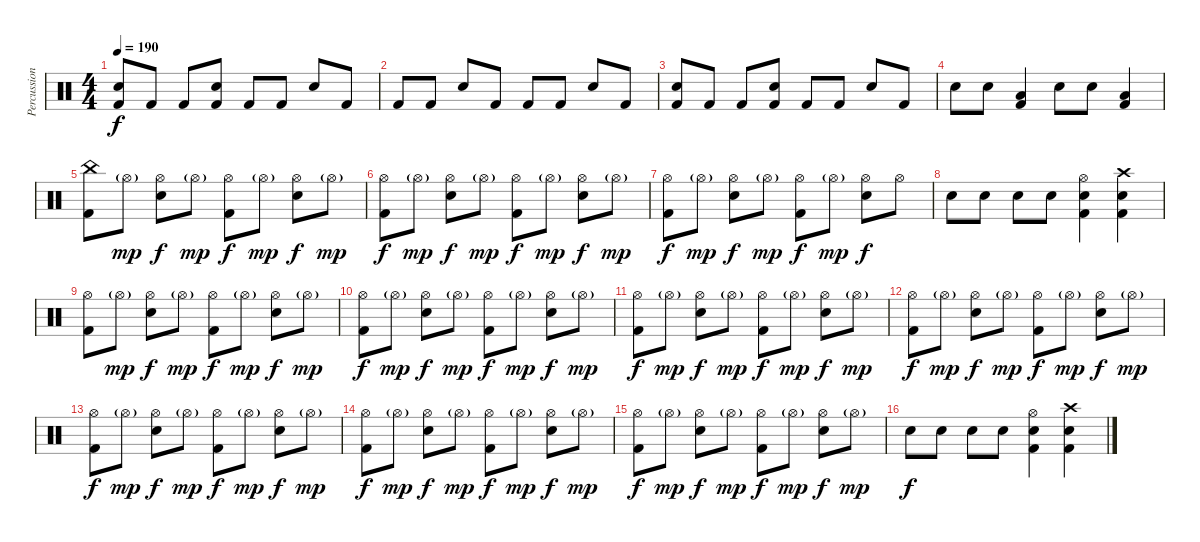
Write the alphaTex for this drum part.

\track ("Percussions" "Percussion") {instrument percussion}
\staff {score}
\articulation defaults
\ts (4 4)
\tempo 190
\clef neutral
\ks c
("Snare (hit) 2" "Kick (hit) 2").8{dy f} "Kick (hit) 2".8 "Kick (hit) 2".8 ("Snare (hit) 2" "Kick (hit) 2").8 "Kick (hit) 2".8 "Kick (hit) 2".8 "Snare (hit) 2".8 "Kick (hit) 2".8 |
"Kick (hit) 2".8 "Kick (hit) 2".8 "Snare (hit) 2".8 "Kick (hit) 2".8 "Kick (hit) 2".8 "Kick (hit) 2".8 "Snare (hit) 2".8 "Kick (hit) 2".8 |
("Snare (hit) 2" "Kick (hit) 2").8 "Kick (hit) 2".8 "Kick (hit) 2".8 ("Snare (hit) 2" "Kick (hit) 2").8 "Kick (hit) 2".8 "Kick (hit) 2".8 "Snare (hit) 2".8 "Kick (hit) 2".8 |
"Snare (hit) 2".8 "Snare (hit) 2".8 ("Low Floor Tom (hit)" "Kick (hit) 2").4 "Snare (hit) 2".8 "Snare (hit) 2".8 ("Low Floor Tom (hit)" "Kick (hit) 2").4 |
("China (hit)" "Kick (hit) 2").8 "Hi-Hat (open)"{g}.8{dy mp} ("Hi-Hat (open)" "Snare (hit) 2").8{dy f} "Hi-Hat (open)"{g}.8{dy mp} ("Hi-Hat (open)" "Kick (hit) 2").8{dy f} "Hi-Hat (open)"{g}.8{dy mp} ("Hi-Hat (open)" "Snare (hit) 2").8{dy f} "Hi-Hat (open)"{g}.8{dy mp} |
("Hi-Hat (open)" "Kick (hit) 2").8{dy f} "Hi-Hat (open)"{g}.8{dy mp} ("Hi-Hat (open)" "Snare (hit) 2").8{dy f} "Hi-Hat (open)"{g}.8{dy mp} ("Hi-Hat (open)" "Kick (hit) 2").8{dy f} "Hi-Hat (open)"{g}.8{dy mp} ("Hi-Hat (open)" "Snare (hit) 2").8{dy f} "Hi-Hat (open)"{g}.8{dy mp} |
("Hi-Hat (open)" "Kick (hit) 2").8{dy f} "Hi-Hat (open)"{g}.8{dy mp} ("Hi-Hat (open)" "Snare (hit) 2").8{dy f} "Hi-Hat (open)"{g}.8{dy mp} ("Hi-Hat (open)" "Kick (hit) 2").8{dy f} "Hi-Hat (open)"{g}.8{dy mp} ("Hi-Hat (open)" "Snare (hit) 2").8{dy f} "Hi-Hat (open)".8 |
"Snare (hit) 2".8 "Snare (hit) 2".8 "Snare (hit) 2".8 "Snare (hit) 2".8 ("Hi-Hat (open)" "Snare (hit) 2" "Kick (hit) 2").4 ("Crash high (hit)" "Snare (hit) 2" "Kick (hit) 2").4 |
("Hi-Hat (open)" "Kick (hit) 2").8 "Hi-Hat (open)"{g}.8{dy mp} ("Hi-Hat (open)" "Snare (hit) 2").8{dy f} "Hi-Hat (open)"{g}.8{dy mp} ("Hi-Hat (open)" "Kick (hit) 2").8{dy f} "Hi-Hat (open)"{g}.8{dy mp} ("Hi-Hat (open)" "Snare (hit) 2").8{dy f} "Hi-Hat (open)"{g}.8{dy mp} |
("Hi-Hat (open)" "Kick (hit) 2").8{dy f} "Hi-Hat (open)"{g}.8{dy mp} ("Hi-Hat (open)" "Snare (hit) 2").8{dy f} "Hi-Hat (open)"{g}.8{dy mp} ("Hi-Hat (open)" "Kick (hit) 2").8{dy f} "Hi-Hat (open)"{g}.8{dy mp} ("Hi-Hat (open)" "Snare (hit) 2").8{dy f} "Hi-Hat (open)"{g}.8{dy mp} |
("Hi-Hat (open)" "Kick (hit) 2").8{dy f} "Hi-Hat (open)"{g}.8{dy mp} ("Hi-Hat (open)" "Snare (hit) 2").8{dy f} "Hi-Hat (open)"{g}.8{dy mp} ("Hi-Hat (open)" "Kick (hit) 2").8{dy f} "Hi-Hat (open)"{g}.8{dy mp} ("Hi-Hat (open)" "Snare (hit) 2").8{dy f} "Hi-Hat (open)"{g}.8{dy mp} |
("Hi-Hat (open)" "Kick (hit) 2").8{dy f} "Hi-Hat (open)"{g}.8{dy mp} ("Hi-Hat (open)" "Snare (hit) 2").8{dy f} "Hi-Hat (open)"{g}.8{dy mp} ("Hi-Hat (open)" "Kick (hit) 2").8{dy f} "Hi-Hat (open)"{g}.8{dy mp} ("Hi-Hat (open)" "Snare (hit) 2").8{dy f} "Hi-Hat (open)"{g}.8{dy mp} |
("Hi-Hat (open)" "Kick (hit) 2").8{dy f} "Hi-Hat (open)"{g}.8{dy mp} ("Hi-Hat (open)" "Snare (hit) 2").8{dy f} "Hi-Hat (open)"{g}.8{dy mp} ("Hi-Hat (open)" "Kick (hit) 2").8{dy f} "Hi-Hat (open)"{g}.8{dy mp} ("Hi-Hat (open)" "Snare (hit) 2").8{dy f} "Hi-Hat (open)"{g}.8{dy mp} |
("Hi-Hat (open)" "Kick (hit) 2").8{dy f} "Hi-Hat (open)"{g}.8{dy mp} ("Hi-Hat (open)" "Snare (hit) 2").8{dy f} "Hi-Hat (open)"{g}.8{dy mp} ("Hi-Hat (open)" "Kick (hit) 2").8{dy f} "Hi-Hat (open)"{g}.8{dy mp} ("Hi-Hat (open)" "Snare (hit) 2").8{dy f} "Hi-Hat (open)"{g}.8{dy mp} |
("Hi-Hat (open)" "Kick (hit) 2").8{dy f} "Hi-Hat (open)"{g}.8{dy mp} ("Hi-Hat (open)" "Snare (hit) 2").8{dy f} "Hi-Hat (open)"{g}.8{dy mp} ("Hi-Hat (open)" "Kick (hit) 2").8{dy f} "Hi-Hat (open)"{g}.8{dy mp} ("Hi-Hat (open)" "Snare (hit) 2").8{dy f} "Hi-Hat (open)"{g}.8{dy mp} |
"Snare (hit) 2".8{dy f} "Snare (hit) 2".8 "Snare (hit) 2".8 "Snare (hit) 2".8 ("Hi-Hat (open)" "Snare (hit) 2" "Kick (hit) 2").4 ("Crash high (hit)" "Snare (hit) 2" "Kick (hit) 2").4
